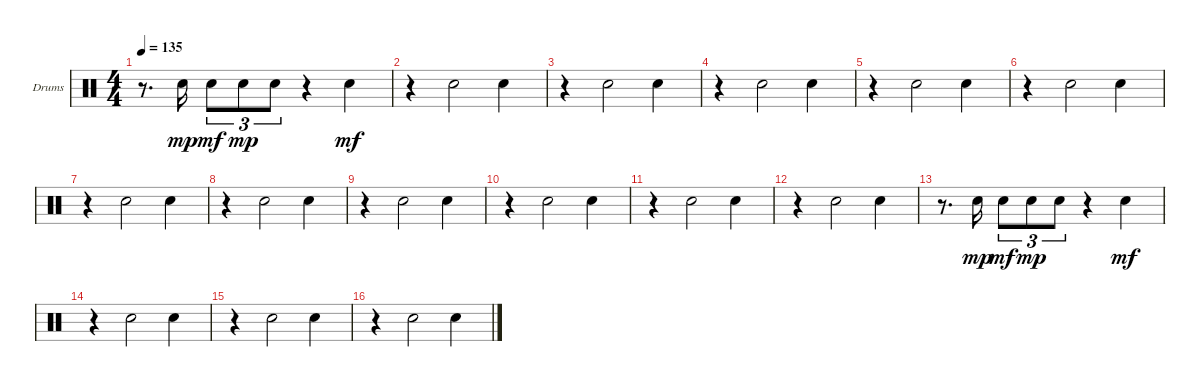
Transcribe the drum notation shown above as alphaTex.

\bracketExtendMode groupsimilarinstruments
\firstSystemTrackNameOrientation horizontal
\otherSystemsTrackNameOrientation horizontal
\track ("Snare" "Drums") {instrument percussion}
\staff {score}
\articulation defaults
\ts (4 4)
\tempo 135
\clef neutral
\ks c
r.8{d dy mf} "Snare (hit) 2".16{dy mp} "Snare (hit) 2".8{tu (3 2) dy mf} "Snare (hit) 2".8{tu (3 2) dy mp} "Snare (hit) 2".8{tu (3 2)} r.4 "Snare (hit) 2".4{dy mf} |
r.4 "Snare (hit) 2".2 "Snare (hit) 2".4 |
r.4 "Snare (hit) 2".2 "Snare (hit) 2".4 |
r.4 "Snare (hit) 2".2 "Snare (hit) 2".4 |
r.4 "Snare (hit) 2".2 "Snare (hit) 2".4 |
r.4 "Snare (hit) 2".2 "Snare (hit) 2".4 |
r.4 "Snare (hit) 2".2 "Snare (hit) 2".4 |
r.4 "Snare (hit) 2".2 "Snare (hit) 2".4 |
r.4 "Snare (hit) 2".2 "Snare (hit) 2".4 |
r.4 "Snare (hit) 2".2 "Snare (hit) 2".4 |
r.4 "Snare (hit) 2".2 "Snare (hit) 2".4 |
r.4 "Snare (hit) 2".2 "Snare (hit) 2".4 |
r.8{d} "Snare (hit) 2".16{dy mp} "Snare (hit) 2".8{tu (3 2) dy mf} "Snare (hit) 2".8{tu (3 2) dy mp} "Snare (hit) 2".8{tu (3 2)} r.4 "Snare (hit) 2".4{dy mf} |
r.4 "Snare (hit) 2".2 "Snare (hit) 2".4 |
r.4 "Snare (hit) 2".2 "Snare (hit) 2".4 |
r.4 "Snare (hit) 2".2 "Snare (hit) 2".4
